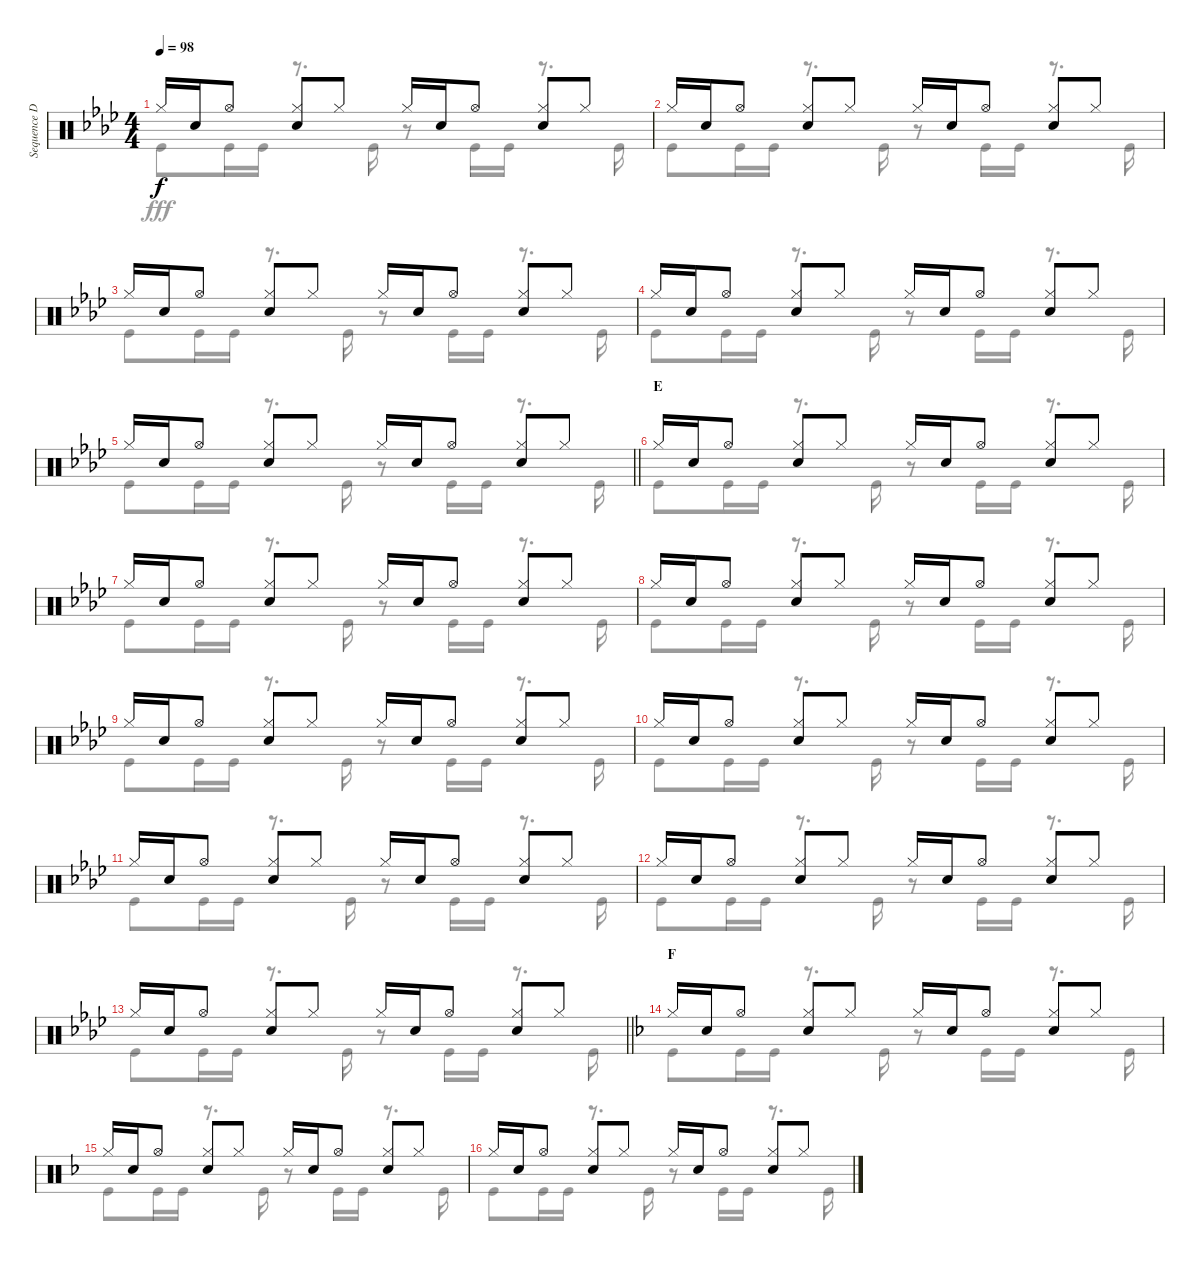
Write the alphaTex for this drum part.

\track ("Sequence Drums II" "Sequence D") {instrument percussion}
\staff {score}
\articulation defaults
\voice
\ts (4 4)
\tempo 98
\clef neutral
\ks ab "Hi-Hat (closed)".16{dy f} "Snare (hit) 2".16 "Hi-Hat (open)".8
("Hi-Hat (closed)" "Snare (hit) 2").8 "Hi-Hat (closed)".8 "Hi-Hat (closed)".16 "Snare (hit) 2".16 "Hi-Hat (open)".8 ("Hi-Hat (closed)" "Snare (hit) 2").8 "Hi-Hat (closed)".8 |
"Hi-Hat (closed)".16 "Snare (hit) 2".16 "Hi-Hat (open)".8 ("Hi-Hat (closed)" "Snare (hit) 2").8 "Hi-Hat (closed)".8 "Hi-Hat (closed)".16 "Snare (hit) 2".16 "Hi-Hat (open)".8 ("Hi-Hat (closed)" "Snare (hit) 2").8 "Hi-Hat (closed)".8 |
"Hi-Hat (closed)".16 "Snare (hit) 2".16 "Hi-Hat (open)".8 ("Hi-Hat (closed)" "Snare (hit) 2").8 "Hi-Hat (closed)".8 "Hi-Hat (closed)".16 "Snare (hit) 2".16 "Hi-Hat (open)".8 ("Hi-Hat (closed)" "Snare (hit) 2").8 "Hi-Hat (closed)".8 |
"Hi-Hat (closed)".16 "Snare (hit) 2".16 "Hi-Hat (open)".8 ("Hi-Hat (closed)" "Snare (hit) 2").8 "Hi-Hat (closed)".8 "Hi-Hat (closed)".16 "Snare (hit) 2".16 "Hi-Hat (open)".8 ("Hi-Hat (closed)" "Snare (hit) 2").8 "Hi-Hat (closed)".8 |
\barLineRight lightlight "Hi-Hat (closed)".16 "Snare (hit) 2".16 "Hi-Hat (open)".8
("Hi-Hat (closed)" "Snare (hit) 2").8 "Hi-Hat (closed)".8 "Hi-Hat (closed)".16 "Snare (hit) 2".16 "Hi-Hat (open)".8 ("Hi-Hat (closed)" "Snare (hit) 2").8 "Hi-Hat (closed)".8 |
\section ("" "E")
"Hi-Hat (closed)".16 "Snare (hit) 2".16 "Hi-Hat (open)".8 ("Hi-Hat (closed)" "Snare (hit) 2").8 "Hi-Hat (closed)".8 "Hi-Hat (closed)".16 "Snare (hit) 2".16 "Hi-Hat (open)".8 ("Hi-Hat (closed)" "Snare (hit) 2").8 "Hi-Hat (closed)".8 |
"Hi-Hat (closed)".16 "Snare (hit) 2".16 "Hi-Hat (open)".8 ("Hi-Hat (closed)" "Snare (hit) 2").8 "Hi-Hat (closed)".8 "Hi-Hat (closed)".16 "Snare (hit) 2".16 "Hi-Hat (open)".8 ("Hi-Hat (closed)" "Snare (hit) 2").8 "Hi-Hat (closed)".8 |
"Hi-Hat (closed)".16 "Snare (hit) 2".16 "Hi-Hat (open)".8 ("Hi-Hat (closed)" "Snare (hit) 2").8 "Hi-Hat (closed)".8 "Hi-Hat (closed)".16 "Snare (hit) 2".16 "Hi-Hat (open)".8 ("Hi-Hat (closed)" "Snare (hit) 2").8 "Hi-Hat (closed)".8 |
"Hi-Hat (closed)".16 "Snare (hit) 2".16 "Hi-Hat (open)".8 ("Hi-Hat (closed)" "Snare (hit) 2").8 "Hi-Hat (closed)".8 "Hi-Hat (closed)".16 "Snare (hit) 2".16 "Hi-Hat (open)".8 ("Hi-Hat (closed)" "Snare (hit) 2").8 "Hi-Hat (closed)".8 |
"Hi-Hat (closed)".16 "Snare (hit) 2".16 "Hi-Hat (open)".8 ("Hi-Hat (closed)" "Snare (hit) 2").8 "Hi-Hat (closed)".8 "Hi-Hat (closed)".16 "Snare (hit) 2".16 "Hi-Hat (open)".8 ("Hi-Hat (closed)" "Snare (hit) 2").8 "Hi-Hat (closed)".8 |
"Hi-Hat (closed)".16 "Snare (hit) 2".16 "Hi-Hat (open)".8 ("Hi-Hat (closed)" "Snare (hit) 2").8 "Hi-Hat (closed)".8 "Hi-Hat (closed)".16 "Snare (hit) 2".16 "Hi-Hat (open)".8 ("Hi-Hat (closed)" "Snare (hit) 2").8 "Hi-Hat (closed)".8 |
"Hi-Hat (closed)".16 "Snare (hit) 2".16 "Hi-Hat (open)".8 ("Hi-Hat (closed)" "Snare (hit) 2").8 "Hi-Hat (closed)".8 "Hi-Hat (closed)".16 "Snare (hit) 2".16 "Hi-Hat (open)".8 ("Hi-Hat (closed)" "Snare (hit) 2").8 "Hi-Hat (closed)".8 |
\barLineRight lightlight "Hi-Hat (closed)".16 "Snare (hit) 2".16 "Hi-Hat (open)".8
("Hi-Hat (closed)" "Snare (hit) 2").8 "Hi-Hat (closed)".8 "Hi-Hat (closed)".16 "Snare (hit) 2".16 "Hi-Hat (open)".8 ("Hi-Hat (closed)" "Snare (hit) 2").8 "Hi-Hat (closed)".8 |
\section ("" "F")
\ks f "Hi-Hat (closed)".16 "Snare (hit) 2".16 "Hi-Hat (open)".8
("Hi-Hat (closed)" "Snare (hit) 2").8 "Hi-Hat (closed)".8 "Hi-Hat (closed)".16 "Snare (hit) 2".16 "Hi-Hat (open)".8 ("Hi-Hat (closed)" "Snare (hit) 2").8 "Hi-Hat (closed)".8 |
"Hi-Hat (closed)".16 "Snare (hit) 2".16 "Hi-Hat (open)".8 ("Hi-Hat (closed)" "Snare (hit) 2").8 "Hi-Hat (closed)".8 "Hi-Hat (closed)".16 "Snare (hit) 2".16 "Hi-Hat (open)".8 ("Hi-Hat (closed)" "Snare (hit) 2").8 "Hi-Hat (closed)".8 |
"Hi-Hat (closed)".16 "Snare (hit) 2".16 "Hi-Hat (open)".8 ("Hi-Hat (closed)" "Snare (hit) 2").8 "Hi-Hat (closed)".8 "Hi-Hat (closed)".16 "Snare (hit) 2".16 "Hi-Hat (open)".8 ("Hi-Hat (closed)" "Snare (hit) 2").8 "Hi-Hat (closed)".8
\voice
\clef neutral
\ottava regular
\simile none
\ks ab "Kick (hit)".8{dy fff} "Kick (hit)".16 "Kick (hit)".16
r.8{d} "Kick (hit)".16 r.8 "Kick (hit)".16 "Kick (hit)".16 r.8{d} "Kick (hit)".16 |
"Kick (hit)".8 "Kick (hit)".16 "Kick (hit)".16 r.8{d} "Kick (hit)".16 r.8 "Kick (hit)".16 "Kick (hit)".16 r.8{d} "Kick (hit)".16 |
"Kick (hit)".8 "Kick (hit)".16 "Kick (hit)".16 r.8{d} "Kick (hit)".16 r.8 "Kick (hit)".16 "Kick (hit)".16 r.8{d} "Kick (hit)".16 |
"Kick (hit)".8 "Kick (hit)".16 "Kick (hit)".16 r.8{d} "Kick (hit)".16 r.8 "Kick (hit)".16 "Kick (hit)".16 r.8{d} "Kick (hit)".16 |
\barLineRight lightlight "Kick (hit)".8 "Kick (hit)".16 "Kick (hit)".16
r.8{d} "Kick (hit)".16 r.8 "Kick (hit)".16 "Kick (hit)".16 r.8{d} "Kick (hit)".16 |
"Kick (hit)".8 "Kick (hit)".16 "Kick (hit)".16 r.8{d} "Kick (hit)".16 r.8 "Kick (hit)".16 "Kick (hit)".16 r.8{d} "Kick (hit)".16 |
"Kick (hit)".8 "Kick (hit)".16 "Kick (hit)".16 r.8{d} "Kick (hit)".16 r.8 "Kick (hit)".16 "Kick (hit)".16 r.8{d} "Kick (hit)".16 |
"Kick (hit)".8 "Kick (hit)".16 "Kick (hit)".16 r.8{d} "Kick (hit)".16 r.8 "Kick (hit)".16 "Kick (hit)".16 r.8{d} "Kick (hit)".16 |
"Kick (hit)".8 "Kick (hit)".16 "Kick (hit)".16 r.8{d} "Kick (hit)".16 r.8 "Kick (hit)".16 "Kick (hit)".16 r.8{d} "Kick (hit)".16 |
"Kick (hit)".8 "Kick (hit)".16 "Kick (hit)".16 r.8{d} "Kick (hit)".16 r.8 "Kick (hit)".16 "Kick (hit)".16 r.8{d} "Kick (hit)".16 |
"Kick (hit)".8 "Kick (hit)".16 "Kick (hit)".16 r.8{d} "Kick (hit)".16 r.8 "Kick (hit)".16 "Kick (hit)".16 r.8{d} "Kick (hit)".16 |
"Kick (hit)".8 "Kick (hit)".16 "Kick (hit)".16 r.8{d} "Kick (hit)".16 r.8 "Kick (hit)".16 "Kick (hit)".16 r.8{d} "Kick (hit)".16 |
\barLineRight lightlight "Kick (hit)".8 "Kick (hit)".16 "Kick (hit)".16
r.8{d} "Kick (hit)".16 r.8 "Kick (hit)".16 "Kick (hit)".16 r.8{d} "Kick (hit)".16 |
\ks f "Kick (hit)".8 "Kick (hit)".16 "Kick (hit)".16
r.8{d} "Kick (hit)".16 r.8 "Kick (hit)".16 "Kick (hit)".16 r.8{d} "Kick (hit)".16 |
"Kick (hit)".8 "Kick (hit)".16 "Kick (hit)".16 r.8{d} "Kick (hit)".16 r.8 "Kick (hit)".16 "Kick (hit)".16 r.8{d} "Kick (hit)".16 |
"Kick (hit)".8 "Kick (hit)".16 "Kick (hit)".16 r.8{d} "Kick (hit)".16 r.8 "Kick (hit)".16 "Kick (hit)".16 r.8{d} "Kick (hit)".16
